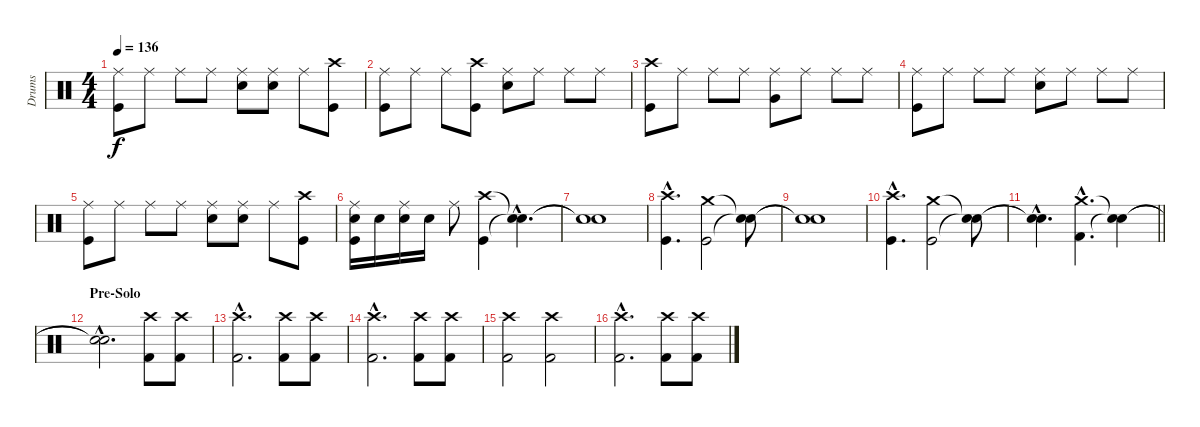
\track ("Drums" "Drums") {instrument percussion}
\staff {score}
\articulation defaults
\ts (4 4)
\tempo 136
\clef neutral
\ks c
("Ride (middle)" "Kick (hit)").8{dy f} "Ride (middle)".8 "Ride (middle)".8 "Ride (middle)".8 ("Ride (middle)" "Snare (hit) 2").8 ("Ride (middle)" "Snare (hit) 2").8 "Ride (middle)".8 ("Crash high (hit)" "Kick (hit)").8 |
("Ride (middle)" "Kick (hit)").8 "Ride (middle)".8 "Ride (middle)".8 ("Crash high (hit)" "Kick (hit)").8 ("Ride (middle)" "Snare (hit) 2").8 "Ride (middle)".8 "Ride (middle)".8 "Ride (middle)".8 |
("Crash high (hit)" "Kick (hit)").8 "Ride (middle)".8 "Ride (middle)".8 "Ride (middle)".8 ("Ride (middle)" "Very Low Tom (hit)").8 "Ride (middle)".8 "Ride (middle)".8 "Ride (middle)".8 |
("Ride (middle)" "Kick (hit)").8 "Ride (middle)".8 "Ride (middle)".8 "Ride (middle)".8 ("Ride (middle)" "Snare (hit) 2").8 "Ride (middle)".8 "Ride (middle)".8 "Ride (middle)".8 |
("Ride (middle)" "Kick (hit)").8 "Ride (middle)".8 "Ride (middle)".8 "Ride (middle)".8 ("Ride (middle)" "Snare (hit) 2").8 ("Ride (middle)" "Snare (hit) 2").8 "Ride (middle)".8 ("Crash high (hit)" "Kick (hit)").8 |
("Ride (middle)" "Snare (hit) 2" "Kick (hit)").16 "Snare (hit) 2".16 ("Ride (middle)" "Snare (hit) 2").16 "Snare (hit) 2".16 "Ride (middle)".8 ("Crash high (hit)" "Kick (hit)").4 ("Snare (hit)"{hac t} "Snare (hit)"{hac t}).4{d} |
("Snare (hit)"{t} "Snare (hit)"{t}).1 |
("Crash high (hit)"{hac} "Kick (hit)"{hac}).4{d} ("Crash medium (hit)" "Kick (hit)").2 ("Snare (hit)"{t} "Snare (hit)"{t}).8 |
("Snare (hit)"{t} "Snare (hit)"{t}).1 |
("Crash high (hit)"{hac} "Kick (hit)"{hac}).4{d} ("Crash medium (hit)" "Kick (hit)").2 ("Snare (hit)"{t} "Snare (hit)"{t}).8 |
\barLineRight lightlight
("Snare (hit)"{hac t} "Snare (hit)"{hac t}).4{d} ("Crash medium (hit)"{hac} "Kick (hit) 2"{hac}).4{d} ("Snare (hit)"{t} "Snare (hit)"{t}).4 |
\section ("" "Pre-Solo")
("Snare (hit)"{hac t} "Snare (hit)"{hac t}).2{d} ("Crash high (hit)" "Kick (hit) 2").8 ("Crash high (hit)" "Kick (hit) 2").8 |
("Crash high (hit)"{hac} "Kick (hit) 2"{hac}).2{d} ("Crash high (hit)" "Kick (hit) 2").8 ("Crash high (hit)" "Kick (hit) 2").8 |
("Crash high (hit)"{hac} "Kick (hit) 2"{hac}).2{d} ("Crash high (hit)" "Kick (hit) 2").8 ("Crash high (hit)" "Kick (hit) 2").8 |
("Crash high (hit)" "Kick (hit) 2").2 ("Crash high (hit)" "Kick (hit) 2").2 |
("Crash high (hit)"{hac} "Kick (hit) 2"{hac}).2{d} ("Crash high (hit)" "Kick (hit) 2").8 ("Crash high (hit)" "Kick (hit) 2").8
